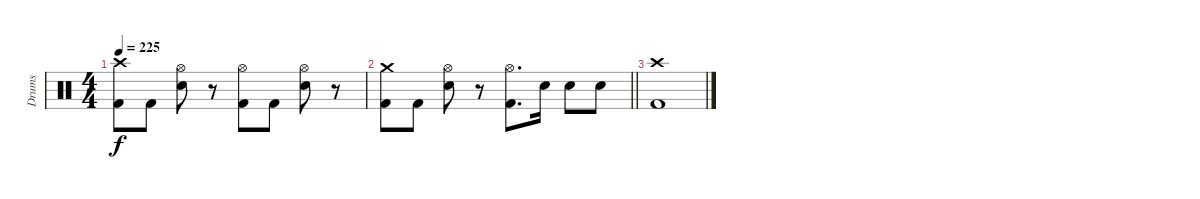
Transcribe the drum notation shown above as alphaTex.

\track ("Drums" "Drums") {instrument percussion}
\staff {score}
\articulation defaults
\ts (4 4)
\tempo 225
\clef neutral
\ks c
("Crash high (hit)" "Kick (hit) 2").8{dy f} "Kick (hit) 2".8 ("Hi-Hat (open)" "Electric Snare (hit)").8 r.8 ("Hi-Hat (open)" "Kick (hit) 2").8 "Kick (hit) 2".8 ("Hi-Hat (open)" "Electric Snare (hit)").8 r.8 |
\barLineRight lightlight
("Crash medium (hit)" "Kick (hit) 2").8 "Kick (hit) 2".8 ("Hi-Hat (open)" "Electric Snare (hit)").8 r.8 ("Hi-Hat (open)" "Kick (hit) 2").8{d} "Electric Snare (hit)".16 "Electric Snare (hit)".8 "Electric Snare (hit)".8 |
("Crash high (hit)" "Kick (hit) 2").1
